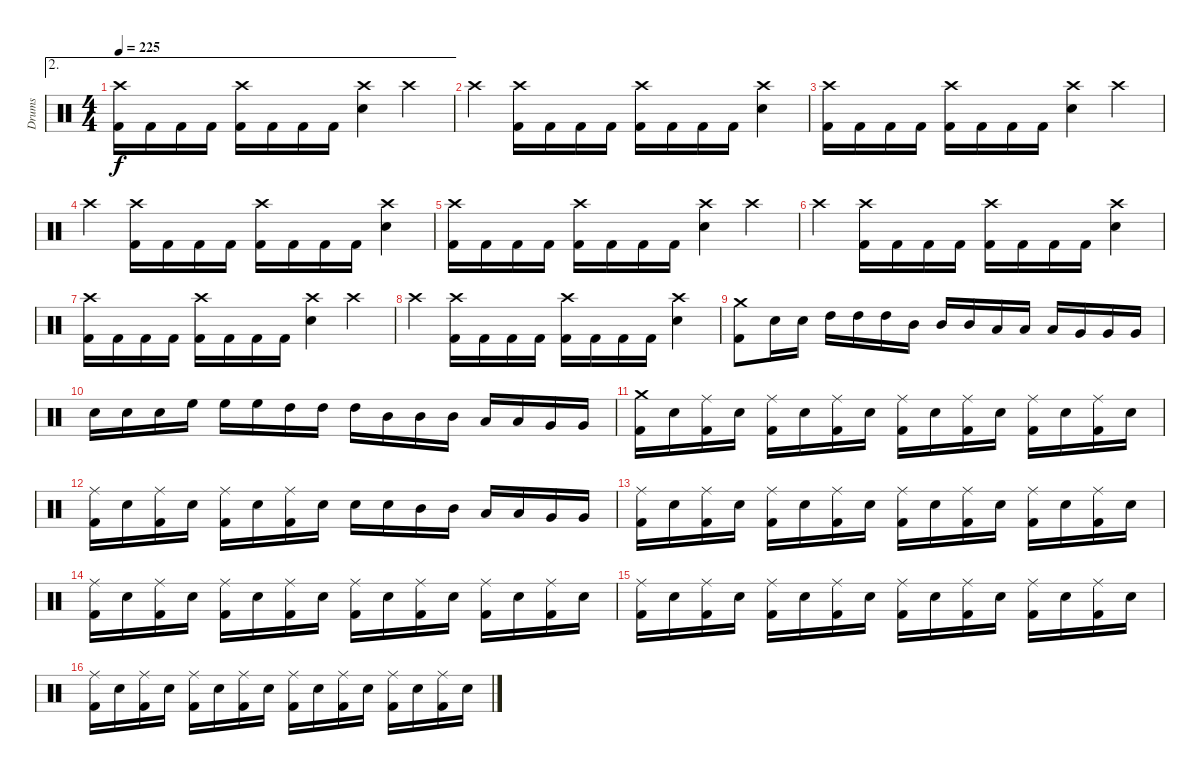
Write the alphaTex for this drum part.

\track ("Drums" "Drums") {instrument percussion}
\staff {score}
\articulation defaults
\ae 2
\ts (4 4)
\tempo 225
\clef neutral
\ks c
("Kick (hit) 2" "Crash high (hit)").16{dy f} "Kick (hit) 2".16 "Kick (hit) 2".16 "Kick (hit) 2".16 ("Kick (hit) 2" "Crash high (hit)").16 "Kick (hit) 2".16 "Kick (hit) 2".16 "Kick (hit) 2".16 ("Electric Snare (hit)" "Crash high (hit)").4 "Crash high (hit)".4 |
"Crash high (hit)".4 ("Kick (hit) 2" "Crash high (hit)").16 "Kick (hit) 2".16 "Kick (hit) 2".16 "Kick (hit) 2".16 ("Kick (hit) 2" "Crash high (hit)").16 "Kick (hit) 2".16 "Kick (hit) 2".16 "Kick (hit) 2".16 ("Electric Snare (hit)" "Crash high (hit)").4 |
("Kick (hit) 2" "Crash high (hit)").16 "Kick (hit) 2".16 "Kick (hit) 2".16 "Kick (hit) 2".16 ("Kick (hit) 2" "Crash high (hit)").16 "Kick (hit) 2".16 "Kick (hit) 2".16 "Kick (hit) 2".16 ("Electric Snare (hit)" "Crash high (hit)").4 "Crash high (hit)".4 |
"Crash high (hit)".4 ("Kick (hit) 2" "Crash high (hit)").16 "Kick (hit) 2".16 "Kick (hit) 2".16 "Kick (hit) 2".16 ("Kick (hit) 2" "Crash high (hit)").16 "Kick (hit) 2".16 "Kick (hit) 2".16 "Kick (hit) 2".16 ("Electric Snare (hit)" "Crash high (hit)").4 |
("Kick (hit) 2" "Crash high (hit)").16 "Kick (hit) 2".16 "Kick (hit) 2".16 "Kick (hit) 2".16 ("Kick (hit) 2" "Crash high (hit)").16 "Kick (hit) 2".16 "Kick (hit) 2".16 "Kick (hit) 2".16 ("Electric Snare (hit)" "Crash high (hit)").4 "Crash high (hit)".4 |
"Crash high (hit)".4 ("Kick (hit) 2" "Crash high (hit)").16 "Kick (hit) 2".16 "Kick (hit) 2".16 "Kick (hit) 2".16 ("Kick (hit) 2" "Crash high (hit)").16 "Kick (hit) 2".16 "Kick (hit) 2".16 "Kick (hit) 2".16 ("Electric Snare (hit)" "Crash high (hit)").4 |
("Kick (hit) 2" "Crash high (hit)").16 "Kick (hit) 2".16 "Kick (hit) 2".16 "Kick (hit) 2".16 ("Kick (hit) 2" "Crash high (hit)").16 "Kick (hit) 2".16 "Kick (hit) 2".16 "Kick (hit) 2".16 ("Electric Snare (hit)" "Crash high (hit)").4 "Crash high (hit)".4 |
"Crash high (hit)".4 ("Kick (hit) 2" "Crash high (hit)").16 "Kick (hit) 2".16 "Kick (hit) 2".16 "Kick (hit) 2".16 ("Kick (hit) 2" "Crash high (hit)").16 "Kick (hit) 2".16 "Kick (hit) 2".16 "Kick (hit) 2".16 ("Electric Snare (hit)" "Crash high (hit)").4 |
("Kick (hit) 2" "Crash medium (hit)").8 "Electric Snare (hit)".16 "Electric Snare (hit)".16 "High Tom (hit)".16 "High Tom (hit)".16 "High Tom (hit)".16 "Mid Tom (hit)".16 "Mid Tom (hit)".16 "Mid Tom (hit)".16 "Low Tom (hit)".16 "Low Tom (hit)".16 "Low Tom (hit)".16 "Very Low Tom (hit)".16 "Very Low Tom (hit)".16 "Very Low Tom (hit)".16 |
"Electric Snare (hit)".16 "Electric Snare (hit)".16 "Electric Snare (hit)".16 "High Floor Tom (hit)".16 "High Floor Tom (hit)".16 "High Floor Tom (hit)".16 "High Tom (hit)".16 "High Tom (hit)".16 "High Tom (hit)".16 "Mid Tom (hit)".16 "Mid Tom (hit)".16 "Mid Tom (hit)".16 "Low Tom (hit)".16 "Low Tom (hit)".16 "Very Low Tom (hit)".16 "Very Low Tom (hit)".16 |
("Kick (hit) 2" "Crash medium (hit)").16 "Electric Snare (hit)".16 ("Kick (hit) 2" "Ride (middle)").16 "Electric Snare (hit)".16 ("Kick (hit) 2" "Ride (middle)").16 "Electric Snare (hit)".16 ("Kick (hit) 2" "Ride (middle)").16 "Electric Snare (hit)".16 ("Kick (hit) 2" "Ride (middle)").16 "Electric Snare (hit)".16 ("Kick (hit) 2" "Ride (middle)").16 "Electric Snare (hit)".16 ("Kick (hit) 2" "Ride (middle)").16 "Electric Snare (hit)".16 ("Kick (hit) 2" "Ride (middle)").16 "Electric Snare (hit)".16 |
("Kick (hit) 2" "Ride (middle)").16 "Electric Snare (hit)".16 ("Kick (hit) 2" "Ride (middle)").16 "Electric Snare (hit)".16 ("Kick (hit) 2" "Ride (middle)").16 "Electric Snare (hit)".16 ("Kick (hit) 2" "Ride (middle)").16 "Electric Snare (hit)".16 "Electric Snare (hit)".16 "Electric Snare (hit)".16 "Mid Tom (hit)".16 "Mid Tom (hit)".16 "Low Tom (hit)".16 "Low Tom (hit)".16 "Very Low Tom (hit)".16 "Very Low Tom (hit)".16 |
("Kick (hit) 2" "Ride (middle)").16 "Electric Snare (hit)".16 ("Kick (hit) 2" "Ride (middle)").16 "Electric Snare (hit)".16 ("Kick (hit) 2" "Ride (middle)").16 "Electric Snare (hit)".16 ("Kick (hit) 2" "Ride (middle)").16 "Electric Snare (hit)".16 ("Kick (hit) 2" "Ride (middle)").16 "Electric Snare (hit)".16 ("Kick (hit) 2" "Ride (middle)").16 "Electric Snare (hit)".16 ("Kick (hit) 2" "Ride (middle)").16 "Electric Snare (hit)".16 ("Kick (hit) 2" "Ride (middle)").16 "Electric Snare (hit)".16 |
("Kick (hit) 2" "Ride (middle)").16 "Electric Snare (hit)".16 ("Kick (hit) 2" "Ride (middle)").16 "Electric Snare (hit)".16 ("Kick (hit) 2" "Ride (middle)").16 "Electric Snare (hit)".16 ("Kick (hit) 2" "Ride (middle)").16 "Electric Snare (hit)".16 ("Kick (hit) 2" "Ride (middle)").16 "Electric Snare (hit)".16 ("Kick (hit) 2" "Ride (middle)").16 "Electric Snare (hit)".16 ("Kick (hit) 2" "Ride (middle)").16 "Electric Snare (hit)".16 ("Kick (hit) 2" "Ride (middle)").16 "Electric Snare (hit)".16 |
("Kick (hit) 2" "Ride (middle)").16 "Electric Snare (hit)".16 ("Kick (hit) 2" "Ride (middle)").16 "Electric Snare (hit)".16 ("Kick (hit) 2" "Ride (middle)").16 "Electric Snare (hit)".16 ("Kick (hit) 2" "Ride (middle)").16 "Electric Snare (hit)".16 ("Kick (hit) 2" "Ride (middle)").16 "Electric Snare (hit)".16 ("Kick (hit) 2" "Ride (middle)").16 "Electric Snare (hit)".16 ("Kick (hit) 2" "Ride (middle)").16 "Electric Snare (hit)".16 ("Kick (hit) 2" "Ride (middle)").16 "Electric Snare (hit)".16 |
("Kick (hit) 2" "Ride (middle)").16 "Electric Snare (hit)".16 ("Kick (hit) 2" "Ride (middle)").16 "Electric Snare (hit)".16 ("Kick (hit) 2" "Ride (middle)").16 "Electric Snare (hit)".16 ("Kick (hit) 2" "Ride (middle)").16 "Electric Snare (hit)".16 ("Kick (hit) 2" "Ride (middle)").16 "Electric Snare (hit)".16 ("Kick (hit) 2" "Ride (middle)").16 "Electric Snare (hit)".16 ("Kick (hit) 2" "Ride (middle)").16 "Electric Snare (hit)".16 ("Kick (hit) 2" "Ride (middle)").16 "Electric Snare (hit)".16
